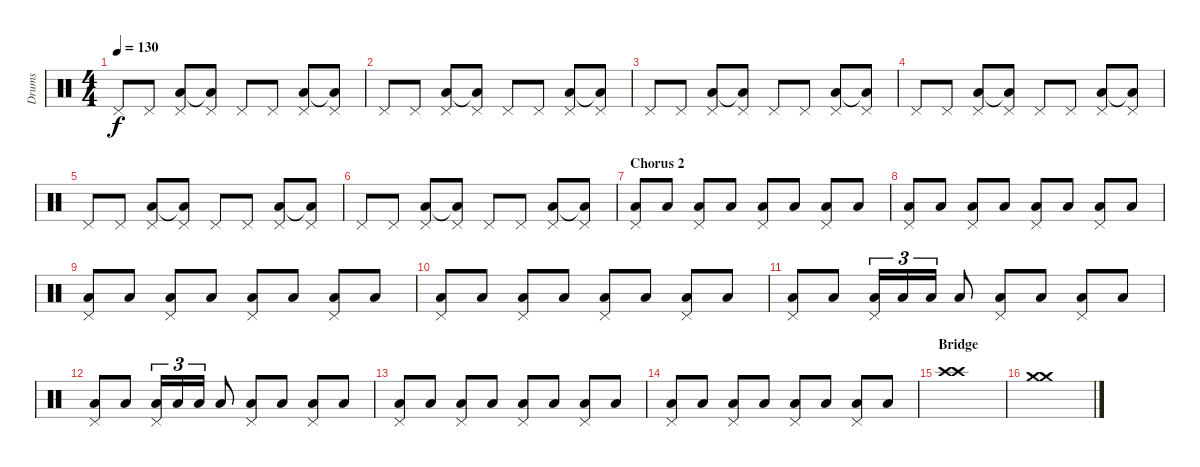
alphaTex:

\track ("Drums" "Drums") {instrument percussion}
\staff {score}
\articulation defaults
\ts (4 4)
\tempo 130
\clef neutral
\ks c "Pedal Hi-Hat (hit)".8{dy f} "Pedal Hi-Hat (hit)".8
("Pedal Hi-Hat (hit)" "Low Floor Tom (hit)").8 ("Pedal Hi-Hat (hit)" "Low Floor Tom (hit)"{t}).8 "Pedal Hi-Hat (hit)".8 "Pedal Hi-Hat (hit)".8 ("Pedal Hi-Hat (hit)" "Low Floor Tom (hit)").8 ("Pedal Hi-Hat (hit)" "Low Floor Tom (hit)"{t}).8 |
"Pedal Hi-Hat (hit)".8 "Pedal Hi-Hat (hit)".8 ("Pedal Hi-Hat (hit)" "Low Floor Tom (hit)").8 ("Pedal Hi-Hat (hit)" "Low Floor Tom (hit)"{t}).8 "Pedal Hi-Hat (hit)".8 "Pedal Hi-Hat (hit)".8 ("Pedal Hi-Hat (hit)" "Low Floor Tom (hit)").8 ("Pedal Hi-Hat (hit)" "Low Floor Tom (hit)"{t}).8 |
"Pedal Hi-Hat (hit)".8 "Pedal Hi-Hat (hit)".8 ("Pedal Hi-Hat (hit)" "Low Floor Tom (hit)").8 ("Pedal Hi-Hat (hit)" "Low Floor Tom (hit)"{t}).8 "Pedal Hi-Hat (hit)".8 "Pedal Hi-Hat (hit)".8 ("Pedal Hi-Hat (hit)" "Low Floor Tom (hit)").8 ("Pedal Hi-Hat (hit)" "Low Floor Tom (hit)"{t}).8 |
"Pedal Hi-Hat (hit)".8 "Pedal Hi-Hat (hit)".8 ("Pedal Hi-Hat (hit)" "Low Floor Tom (hit)").8 ("Pedal Hi-Hat (hit)" "Low Floor Tom (hit)"{t}).8 "Pedal Hi-Hat (hit)".8 "Pedal Hi-Hat (hit)".8 ("Pedal Hi-Hat (hit)" "Low Floor Tom (hit)").8 ("Pedal Hi-Hat (hit)" "Low Floor Tom (hit)"{t}).8 |
"Pedal Hi-Hat (hit)".8 "Pedal Hi-Hat (hit)".8 ("Pedal Hi-Hat (hit)" "Low Floor Tom (hit)").8 ("Pedal Hi-Hat (hit)" "Low Floor Tom (hit)"{t}).8 "Pedal Hi-Hat (hit)".8 "Pedal Hi-Hat (hit)".8 ("Pedal Hi-Hat (hit)" "Low Floor Tom (hit)").8 ("Pedal Hi-Hat (hit)" "Low Floor Tom (hit)"{t}).8 |
"Pedal Hi-Hat (hit)".8 "Pedal Hi-Hat (hit)".8 ("Pedal Hi-Hat (hit)" "Low Floor Tom (hit)").8 ("Pedal Hi-Hat (hit)" "Low Floor Tom (hit)"{t}).8 "Pedal Hi-Hat (hit)".8 "Pedal Hi-Hat (hit)".8 ("Pedal Hi-Hat (hit)" "Low Floor Tom (hit)").8 ("Pedal Hi-Hat (hit)" "Low Floor Tom (hit)"{t}).8 |
\section ("" "Chorus 2")
("Pedal Hi-Hat (hit)" "Low Floor Tom (hit)").8 "Low Floor Tom (hit)".8 ("Pedal Hi-Hat (hit)" "Low Floor Tom (hit)").8 "Low Floor Tom (hit)".8 ("Pedal Hi-Hat (hit)" "Low Floor Tom (hit)").8 "Low Floor Tom (hit)".8 ("Pedal Hi-Hat (hit)" "Low Floor Tom (hit)").8 "Low Floor Tom (hit)".8 |
("Pedal Hi-Hat (hit)" "Low Floor Tom (hit)").8 "Low Floor Tom (hit)".8 ("Pedal Hi-Hat (hit)" "Low Floor Tom (hit)").8 "Low Floor Tom (hit)".8 ("Pedal Hi-Hat (hit)" "Low Floor Tom (hit)").8 "Low Floor Tom (hit)".8 ("Pedal Hi-Hat (hit)" "Low Floor Tom (hit)").8 "Low Floor Tom (hit)".8 |
("Pedal Hi-Hat (hit)" "Low Floor Tom (hit)").8 "Low Floor Tom (hit)".8 ("Pedal Hi-Hat (hit)" "Low Floor Tom (hit)").8 "Low Floor Tom (hit)".8 ("Pedal Hi-Hat (hit)" "Low Floor Tom (hit)").8 "Low Floor Tom (hit)".8 ("Pedal Hi-Hat (hit)" "Low Floor Tom (hit)").8 "Low Floor Tom (hit)".8 |
("Pedal Hi-Hat (hit)" "Low Floor Tom (hit)").8 "Low Floor Tom (hit)".8 ("Pedal Hi-Hat (hit)" "Low Floor Tom (hit)").8 "Low Floor Tom (hit)".8 ("Pedal Hi-Hat (hit)" "Low Floor Tom (hit)").8 "Low Floor Tom (hit)".8 ("Pedal Hi-Hat (hit)" "Low Floor Tom (hit)").8 "Low Floor Tom (hit)".8 |
("Pedal Hi-Hat (hit)" "Low Floor Tom (hit)").8 "Low Floor Tom (hit)".8 ("Pedal Hi-Hat (hit)" "Low Floor Tom (hit)").16{tu (3 2)} "Low Floor Tom (hit)".16{tu (3 2)} "Low Floor Tom (hit)".16{tu (3 2)} "Low Floor Tom (hit)".8 ("Pedal Hi-Hat (hit)" "Low Floor Tom (hit)").8 "Low Floor Tom (hit)".8 ("Pedal Hi-Hat (hit)" "Low Floor Tom (hit)").8 "Low Floor Tom (hit)".8 |
("Pedal Hi-Hat (hit)" "Low Floor Tom (hit)").8 "Low Floor Tom (hit)".8 ("Pedal Hi-Hat (hit)" "Low Floor Tom (hit)").16{tu (3 2)} "Low Floor Tom (hit)".16{tu (3 2)} "Low Floor Tom (hit)".16{tu (3 2)} "Low Floor Tom (hit)".8 ("Pedal Hi-Hat (hit)" "Low Floor Tom (hit)").8 "Low Floor Tom (hit)".8 ("Pedal Hi-Hat (hit)" "Low Floor Tom (hit)").8 "Low Floor Tom (hit)".8 |
("Pedal Hi-Hat (hit)" "Low Floor Tom (hit)").8 "Low Floor Tom (hit)".8 ("Pedal Hi-Hat (hit)" "Low Floor Tom (hit)").8 "Low Floor Tom (hit)".8 ("Pedal Hi-Hat (hit)" "Low Floor Tom (hit)").8 "Low Floor Tom (hit)".8 ("Pedal Hi-Hat (hit)" "Low Floor Tom (hit)").8 "Low Floor Tom (hit)".8 |
("Pedal Hi-Hat (hit)" "Low Floor Tom (hit)").8 "Low Floor Tom (hit)".8 ("Pedal Hi-Hat (hit)" "Low Floor Tom (hit)").8 "Low Floor Tom (hit)".8 ("Pedal Hi-Hat (hit)" "Low Floor Tom (hit)").8 "Low Floor Tom (hit)".8 ("Pedal Hi-Hat (hit)" "Low Floor Tom (hit)").8 "Low Floor Tom (hit)".8 |
\section ("" "Bridge")
("Crash high (hit)" "Crash high (hit)").1 |
("Crash medium (hit)" "Crash medium (hit)").1
